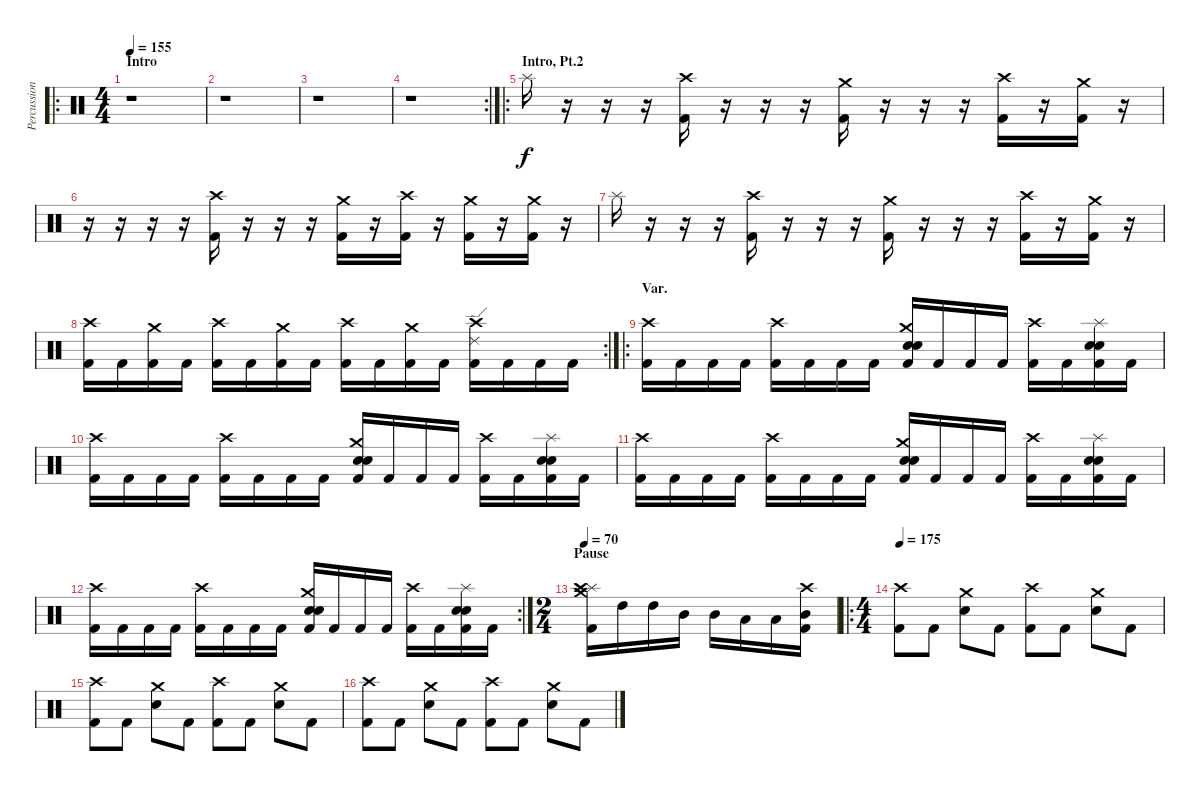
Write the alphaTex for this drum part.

\track ("Percussion" "Percussion") {instrument percussion}
\staff {score}
\articulation defaults
\ro
\ts (4 4)
\section ("" "Intro")
\tempo 155
\clef neutral
\ks c
r.1{dy f} |
r.1 |
r.1 |
\rc 2
r.1 |
\ro
\section ("" "Intro, Pt.2")
"Splash (hit)".16 r.16 r.16 r.16 ("Crash high (hit)" "Kick (hit) 2").16 r.16 r.16 r.16 ("Crash medium (hit)" "Kick (hit) 2").16 r.16 r.16 r.16 ("Crash high (hit)" "Kick (hit) 2").16 r.16 ("Crash medium (hit)" "Kick (hit) 2").16 r.16 |
r.16 r.16 r.16 r.16 ("Crash high (hit)" "Kick (hit) 2").16 r.16 r.16 r.16 ("Crash medium (hit)" "Kick (hit) 2").16 r.16 ("Crash high (hit)" "Kick (hit) 2").16 r.16 ("Crash medium (hit)" "Kick (hit) 2").16 r.16 ("Crash medium (hit)" "Kick (hit) 2").16 r.16 |
"Splash (hit)".16 r.16 r.16 r.16 ("Crash high (hit)" "Kick (hit) 2").16 r.16 r.16 r.16 ("Crash medium (hit)" "Kick (hit) 2").16 r.16 r.16 r.16 ("Crash high (hit)" "Kick (hit) 2").16 r.16 ("Crash medium (hit)" "Kick (hit) 2").16 r.16 |
\rc 2
("Crash high (hit)" "Kick (hit) 2").16 "Kick (hit) 2".16 ("Crash medium (hit)" "Kick (hit) 2").16 "Kick (hit) 2".16 ("Crash high (hit)" "Kick (hit) 2").16 "Kick (hit) 2".16 ("Crash medium (hit)" "Kick (hit) 2").16 "Kick (hit) 2".16 ("Crash high (hit)" "Kick (hit) 2").16 "Kick (hit) 2".16 ("Crash medium (hit)" "Kick (hit) 2").16 "Kick (hit) 2".16 ("Ride (edge) 2" "Crash high (hit)" "Kick (hit) 2").16 "Kick (hit) 2".16 "Kick (hit) 2".16 "Kick (hit) 2".16 |
\ro
\section ("" "Var.")
("Crash high (hit)" "Kick (hit) 2").16 "Kick (hit) 2".16 "Kick (hit) 2".16 "Kick (hit) 2".16 ("Crash high (hit)" "Kick (hit) 2").16 "Kick (hit) 2".16 "Kick (hit) 2".16 "Kick (hit) 2".16 ("Electric Snare (hit)" "Crash medium (hit)" "Snare (hit) 2" "Kick (hit) 2").16 "Kick (hit) 2".16 "Kick (hit) 2".16 "Kick (hit) 2".16 ("Crash high (hit)" "Kick (hit) 2").16 "Kick (hit) 2".16 ("Splash (hit)" "Electric Snare (hit)" "Snare (hit) 2" "Kick (hit) 2").16 "Kick (hit) 2".16 |
("Crash high (hit)" "Kick (hit) 2").16 "Kick (hit) 2".16 "Kick (hit) 2".16 "Kick (hit) 2".16 ("Crash high (hit)" "Kick (hit) 2").16 "Kick (hit) 2".16 "Kick (hit) 2".16 "Kick (hit) 2".16 ("Electric Snare (hit)" "Crash medium (hit)" "Snare (hit) 2" "Kick (hit) 2").16 "Kick (hit) 2".16 "Kick (hit) 2".16 "Kick (hit) 2".16 ("Crash high (hit)" "Kick (hit) 2").16 "Kick (hit) 2".16 ("Splash (hit)" "Electric Snare (hit)" "Snare (hit) 2" "Kick (hit) 2").16 "Kick (hit) 2".16 |
("Crash high (hit)" "Kick (hit) 2").16 "Kick (hit) 2".16 "Kick (hit) 2".16 "Kick (hit) 2".16 ("Crash high (hit)" "Kick (hit) 2").16 "Kick (hit) 2".16 "Kick (hit) 2".16 "Kick (hit) 2".16 ("Electric Snare (hit)" "Crash medium (hit)" "Snare (hit) 2" "Kick (hit) 2").16 "Kick (hit) 2".16 "Kick (hit) 2".16 "Kick (hit) 2".16 ("Crash high (hit)" "Kick (hit) 2").16 "Kick (hit) 2".16 ("Splash (hit)" "Electric Snare (hit)" "Snare (hit) 2" "Kick (hit) 2").16 "Kick (hit) 2".16 |
\rc 2
("Crash high (hit)" "Kick (hit) 2").16 "Kick (hit) 2".16 "Kick (hit) 2".16 "Kick (hit) 2".16 ("Crash high (hit)" "Kick (hit) 2").16 "Kick (hit) 2".16 "Kick (hit) 2".16 "Kick (hit) 2".16 ("Electric Snare (hit)" "Crash medium (hit)" "Snare (hit) 2" "Kick (hit) 2").16 "Kick (hit) 2".16 "Kick (hit) 2".16 "Kick (hit) 2".16 ("Crash high (hit)" "Kick (hit) 2").16 "Kick (hit) 2".16 ("Splash (hit)" "Electric Snare (hit)" "Snare (hit) 2" "Kick (hit) 2").16 "Kick (hit) 2".16 |
\ts (2 4)
\section ("" "Pause")
\tempo 70
("Splash (hit)" "Crash high (hit)" "Crash medium (hit)" "Kick (hit) 2").16 "High Tom (hit)".16 "High Tom (hit)".16 "Mid Tom (hit)".16 "Mid Tom (hit)".16 "Low Tom (hit)".16 "Low Tom (hit)".16 ("Crash high (hit)" "Mid Tom (hit)" "Kick (hit) 2").16 |
\ro
\ts (4 4)
\tempo 175
("Crash high (hit)" "Kick (hit) 2").8 "Kick (hit) 2".8 ("Crash medium (hit)" "Snare (hit) 2").8 "Kick (hit) 2".8 ("Crash high (hit)" "Kick (hit) 2").8 "Kick (hit) 2".8 ("Crash medium (hit)" "Snare (hit) 2").8 "Kick (hit) 2".8 |
("Crash high (hit)" "Kick (hit) 2").8 "Kick (hit) 2".8 ("Crash medium (hit)" "Snare (hit) 2").8 "Kick (hit) 2".8 ("Crash high (hit)" "Kick (hit) 2").8 "Kick (hit) 2".8 ("Crash medium (hit)" "Snare (hit) 2").8 "Kick (hit) 2".8 |
("Crash high (hit)" "Kick (hit) 2").8 "Kick (hit) 2".8 ("Crash medium (hit)" "Snare (hit) 2").8 "Kick (hit) 2".8 ("Crash high (hit)" "Kick (hit) 2").8 "Kick (hit) 2".8 ("Crash medium (hit)" "Snare (hit) 2").8 "Kick (hit) 2".8
